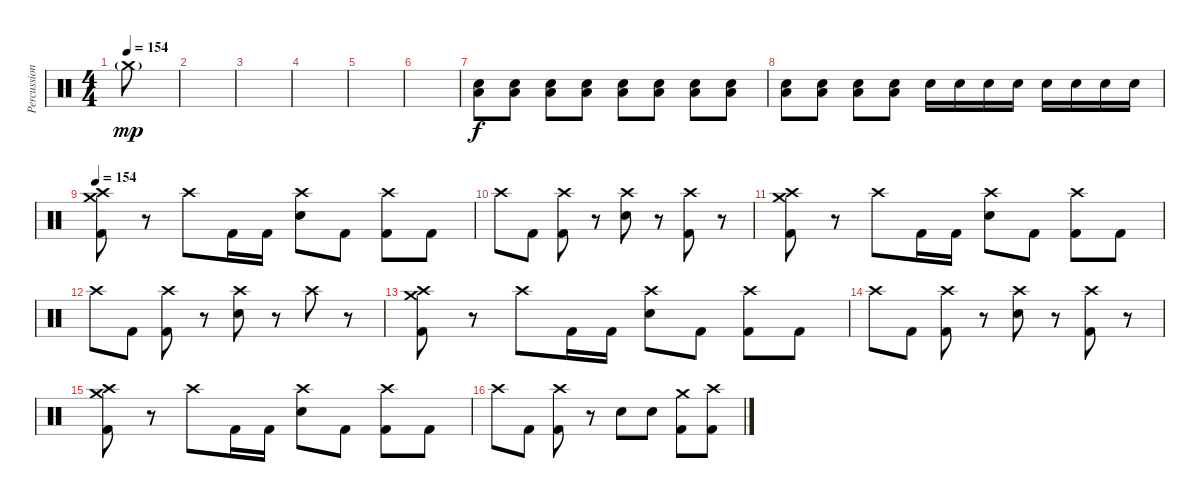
\track ("Percussion" "Percussion") {instrument percussion}
\staff {score}
\articulation defaults
\ts (4 4)
\tempo 154
\clef neutral
\ks c "Crash medium (hit)"{g}.8{dy mp}
|
|
|
|
|
|
("Snare (hit) 2" "Low Floor Tom (hit)").8{dy f} ("Snare (hit) 2" "Low Floor Tom (hit)").8 ("Snare (hit) 2" "Low Floor Tom (hit)").8 ("Snare (hit) 2" "Low Floor Tom (hit)").8 ("Snare (hit) 2" "Low Floor Tom (hit)").8 ("Snare (hit) 2" "Low Floor Tom (hit)").8 ("Snare (hit) 2" "Low Floor Tom (hit)").8 ("Snare (hit) 2" "Low Floor Tom (hit)").8 |
("Snare (hit) 2" "Low Floor Tom (hit)").8 ("Snare (hit) 2" "Low Floor Tom (hit)").8 ("Snare (hit) 2" "Low Floor Tom (hit)").8 ("Snare (hit) 2" "Low Floor Tom (hit)").8 "Snare (hit) 2".16 "Snare (hit) 2".16 "Snare (hit) 2".16 "Snare (hit) 2".16 "Snare (hit) 2".16 "Snare (hit) 2".16 "Snare (hit) 2".16 "Snare (hit) 2".16 |
\tempo 154
("Crash medium (hit)" "Crash high (hit)" "Kick (hit) 2").8 r.8 "Crash high (hit)".8 "Kick (hit) 2".16 "Kick (hit) 2".16 ("Crash high (hit)" "Snare (hit) 2").8 "Kick (hit) 2".8 ("Crash high (hit)" "Kick (hit) 2").8 "Kick (hit) 2".8 |
"Crash high (hit)".8 "Kick (hit) 2".8 ("Crash high (hit)" "Kick (hit) 2").8 r.8 ("Crash high (hit)" "Snare (hit) 2").8 r.8 ("Crash high (hit)" "Kick (hit) 2").8 r.8 |
("Crash high (hit)" "Crash medium (hit)" "Kick (hit) 2").8 r.8 "Crash high (hit)".8 "Kick (hit) 2".16 "Kick (hit) 2".16 ("Crash high (hit)" "Snare (hit) 2").8 "Kick (hit) 2".8 ("Crash high (hit)" "Kick (hit) 2").8 "Kick (hit) 2".8 |
"Crash high (hit)".8 "Kick (hit) 2".8 ("Crash high (hit)" "Kick (hit) 2").8 r.8 ("Crash high (hit)" "Snare (hit) 2").8 r.8 "Crash high (hit)".8 r.8 |
("Crash medium (hit)" "Crash high (hit)" "Kick (hit) 2").8 r.8 "Crash high (hit)".8 "Kick (hit) 2".16 "Kick (hit) 2".16 ("Crash high (hit)" "Snare (hit) 2").8 "Kick (hit) 2".8 ("Crash high (hit)" "Kick (hit) 2").8 "Kick (hit) 2".8 |
"Crash high (hit)".8 "Kick (hit) 2".8 ("Crash high (hit)" "Kick (hit) 2").8 r.8 ("Crash high (hit)" "Snare (hit) 2").8 r.8 ("Crash high (hit)" "Kick (hit) 2").8 r.8 |
("Crash high (hit)" "Crash medium (hit)" "Kick (hit) 2").8 r.8 "Crash high (hit)".8 "Kick (hit) 2".16 "Kick (hit) 2".16 ("Crash high (hit)" "Snare (hit) 2").8 "Kick (hit) 2".8 ("Crash high (hit)" "Kick (hit) 2").8 "Kick (hit) 2".8 |
"Crash high (hit)".8 "Kick (hit) 2".8 ("Crash high (hit)" "Kick (hit) 2").8 r.8 "Snare (hit) 2".8 "Snare (hit) 2".8 ("Crash medium (hit)" "Kick (hit) 2").8 ("Crash high (hit)" "Kick (hit) 2").8
